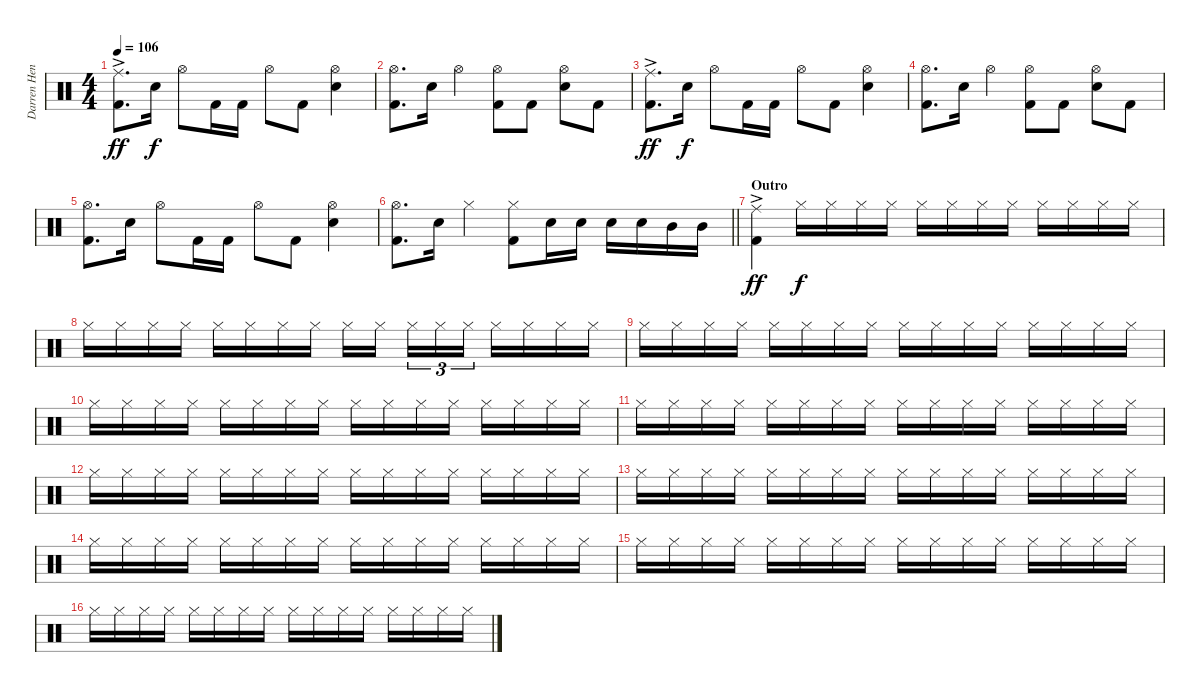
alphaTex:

\track ("Darren Henley [Drums]" "Darren Hen") {instrument percussion}
\staff {score}
\articulation defaults
\ts (4 4)
\tempo 106
\clef neutral
\ks c
("Ride (middle)"{ac} "Kick (hit) 2").8{d dy ff} "Snare (hit) 2".16{dy f} "Hi-Hat (open)".8 "Kick (hit) 2".16 "Kick (hit) 2".16 "Hi-Hat (open)".8 "Kick (hit) 2".8 ("Hi-Hat (open)" "Snare (hit) 2").4 |
("Hi-Hat (open)" "Kick (hit) 2").8{d} "Snare (hit) 2".16 "Hi-Hat (open)".4 ("Hi-Hat (open)" "Kick (hit) 2").8 "Kick (hit) 2".8 ("Hi-Hat (open)" "Snare (hit) 2").8 "Kick (hit) 2".8 |
("Ride (middle)"{ac} "Kick (hit) 2").8{d dy ff} "Snare (hit) 2".16{dy f} "Hi-Hat (open)".8 "Kick (hit) 2".16 "Kick (hit) 2".16 "Hi-Hat (open)".8 "Kick (hit) 2".8 ("Hi-Hat (open)" "Snare (hit) 2").4 |
("Hi-Hat (open)" "Kick (hit) 2").8{d} "Snare (hit) 2".16 "Hi-Hat (open)".4 ("Hi-Hat (open)" "Kick (hit) 2").8 "Kick (hit) 2".8 ("Hi-Hat (open)" "Snare (hit) 2").8 "Kick (hit) 2".8 |
("Hi-Hat (open)" "Kick (hit) 2").8{d} "Snare (hit) 2".16 "Hi-Hat (open)".8 "Kick (hit) 2".16 "Kick (hit) 2".16 "Hi-Hat (open)".8 "Kick (hit) 2".8 ("Hi-Hat (open)" "Snare (hit) 2").4 |
\barLineRight lightlight
("Hi-Hat (open)" "Kick (hit) 2").8{d} "Snare (hit) 2".16 "Hi-Hat (closed)".4 ("Hi-Hat (closed)" "Kick (hit) 2").8 "Snare (hit) 2".16 "Snare (hit) 2".16 "Snare (hit) 2".16 "Snare (hit) 2".16 "Mid Tom (hit)".16 "Mid Tom (hit)".16 |
\section ("" "Outro")
("Ride (middle)"{ac} "Kick (hit) 2").4{dy ff} "Hi-Hat (closed)".16{dy f} "Hi-Hat (closed)".16 "Hi-Hat (closed)".16 "Hi-Hat (closed)".16 "Hi-Hat (closed)".16 "Hi-Hat (closed)".16 "Hi-Hat (closed)".16 "Hi-Hat (closed)".16 "Hi-Hat (closed)".16 "Hi-Hat (closed)".16 "Hi-Hat (closed)".16 "Hi-Hat (closed)".16 |
"Hi-Hat (closed)".16 "Hi-Hat (closed)".16 "Hi-Hat (closed)".16 "Hi-Hat (closed)".16 "Hi-Hat (closed)".16 "Hi-Hat (closed)".16 "Hi-Hat (closed)".16 "Hi-Hat (closed)".16 "Hi-Hat (closed)".16 "Hi-Hat (closed)".16{beam splitsecondary} "Hi-Hat (closed)".16{tu (3 2)} "Hi-Hat (closed)".16{tu (3 2)} "Hi-Hat (closed)".16{tu (3 2)} "Hi-Hat (closed)".16 "Hi-Hat (closed)".16 "Hi-Hat (closed)".16 "Hi-Hat (closed)".16 |
"Hi-Hat (closed)".16 "Hi-Hat (closed)".16 "Hi-Hat (closed)".16 "Hi-Hat (closed)".16 "Hi-Hat (closed)".16 "Hi-Hat (closed)".16 "Hi-Hat (closed)".16 "Hi-Hat (closed)".16 "Hi-Hat (closed)".16 "Hi-Hat (closed)".16 "Hi-Hat (closed)".16 "Hi-Hat (closed)".16 "Hi-Hat (closed)".16 "Hi-Hat (closed)".16 "Hi-Hat (closed)".16 "Hi-Hat (closed)".16 |
"Hi-Hat (closed)".16 "Hi-Hat (closed)".16 "Hi-Hat (closed)".16 "Hi-Hat (closed)".16 "Hi-Hat (closed)".16 "Hi-Hat (closed)".16 "Hi-Hat (closed)".16 "Hi-Hat (closed)".16 "Hi-Hat (closed)".16 "Hi-Hat (closed)".16 "Hi-Hat (closed)".16 "Hi-Hat (closed)".16 "Hi-Hat (closed)".16 "Hi-Hat (closed)".16 "Hi-Hat (closed)".16 "Hi-Hat (closed)".16 |
"Hi-Hat (closed)".16 "Hi-Hat (closed)".16 "Hi-Hat (closed)".16 "Hi-Hat (closed)".16 "Hi-Hat (closed)".16 "Hi-Hat (closed)".16 "Hi-Hat (closed)".16 "Hi-Hat (closed)".16 "Hi-Hat (closed)".16 "Hi-Hat (closed)".16 "Hi-Hat (closed)".16 "Hi-Hat (closed)".16 "Hi-Hat (closed)".16 "Hi-Hat (closed)".16 "Hi-Hat (closed)".16 "Hi-Hat (closed)".16 |
"Hi-Hat (closed)".16 "Hi-Hat (closed)".16 "Hi-Hat (closed)".16 "Hi-Hat (closed)".16 "Hi-Hat (closed)".16 "Hi-Hat (closed)".16 "Hi-Hat (closed)".16 "Hi-Hat (closed)".16 "Hi-Hat (closed)".16 "Hi-Hat (closed)".16 "Hi-Hat (closed)".16 "Hi-Hat (closed)".16 "Hi-Hat (closed)".16 "Hi-Hat (closed)".16 "Hi-Hat (closed)".16 "Hi-Hat (closed)".16 |
"Hi-Hat (closed)".16 "Hi-Hat (closed)".16 "Hi-Hat (closed)".16 "Hi-Hat (closed)".16 "Hi-Hat (closed)".16 "Hi-Hat (closed)".16 "Hi-Hat (closed)".16 "Hi-Hat (closed)".16 "Hi-Hat (closed)".16 "Hi-Hat (closed)".16 "Hi-Hat (closed)".16 "Hi-Hat (closed)".16 "Hi-Hat (closed)".16 "Hi-Hat (closed)".16 "Hi-Hat (closed)".16 "Hi-Hat (closed)".16 |
"Hi-Hat (closed)".16 "Hi-Hat (closed)".16 "Hi-Hat (closed)".16 "Hi-Hat (closed)".16 "Hi-Hat (closed)".16 "Hi-Hat (closed)".16 "Hi-Hat (closed)".16 "Hi-Hat (closed)".16 "Hi-Hat (closed)".16 "Hi-Hat (closed)".16 "Hi-Hat (closed)".16 "Hi-Hat (closed)".16 "Hi-Hat (closed)".16 "Hi-Hat (closed)".16 "Hi-Hat (closed)".16 "Hi-Hat (closed)".16 |
"Hi-Hat (closed)".16 "Hi-Hat (closed)".16 "Hi-Hat (closed)".16 "Hi-Hat (closed)".16 "Hi-Hat (closed)".16 "Hi-Hat (closed)".16 "Hi-Hat (closed)".16 "Hi-Hat (closed)".16 "Hi-Hat (closed)".16 "Hi-Hat (closed)".16 "Hi-Hat (closed)".16 "Hi-Hat (closed)".16 "Hi-Hat (closed)".16 "Hi-Hat (closed)".16 "Hi-Hat (closed)".16 "Hi-Hat (closed)".16 |
"Hi-Hat (closed)".16 "Hi-Hat (closed)".16 "Hi-Hat (closed)".16 "Hi-Hat (closed)".16 "Hi-Hat (closed)".16 "Hi-Hat (closed)".16 "Hi-Hat (closed)".16 "Hi-Hat (closed)".16 "Hi-Hat (closed)".16 "Hi-Hat (closed)".16 "Hi-Hat (closed)".16 "Hi-Hat (closed)".16 "Hi-Hat (closed)".16 "Hi-Hat (closed)".16 "Hi-Hat (closed)".16 "Hi-Hat (closed)".16
